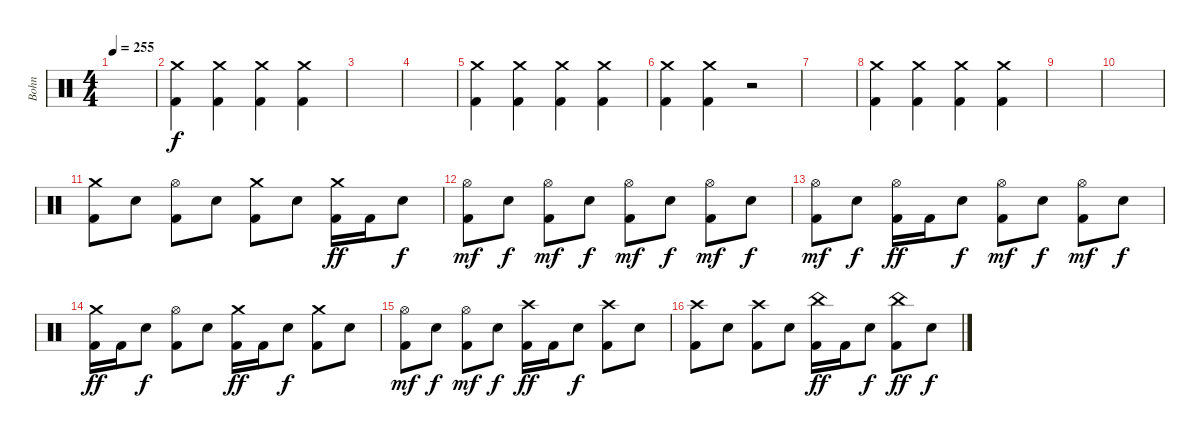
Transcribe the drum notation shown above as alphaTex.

\track ("Bohn" "Bohn") {instrument percussion}
\staff {score}
\articulation defaults
\ts (4 4)
\tempo 255
\clef neutral
\ks c
|
("Crash medium (hit)" "Kick (hit) 2").4{dy f} ("Crash medium (hit)" "Kick (hit) 2").4 ("Crash medium (hit)" "Kick (hit) 2").4 ("Crash medium (hit)" "Kick (hit) 2").4 |
|
|
("Crash medium (hit)" "Kick (hit) 2").4{volume 13} ("Crash medium (hit)" "Kick (hit) 2").4 ("Crash medium (hit)" "Kick (hit) 2").4 ("Crash medium (hit)" "Kick (hit) 2").4 |
("Crash medium (hit)" "Kick (hit) 2").4 ("Crash medium (hit)" "Kick (hit) 2").4 r.2{volume 0} |
|
("Crash medium (hit)" "Kick (hit) 2").4{volume 13} ("Crash medium (hit)" "Kick (hit) 2").4 ("Crash medium (hit)" "Kick (hit) 2").4 ("Crash medium (hit)" "Kick (hit) 2").4 |
|
|
("Crash medium (hit)" "Kick (hit) 2").8{volume 13} "Electric Snare (hit)".8 ("Hi-Hat (open)" "Kick (hit) 2").8 "Electric Snare (hit)".8 ("Crash medium (hit)" "Kick (hit) 2").8 "Electric Snare (hit)".8 ("Crash medium (hit)" "Kick (hit) 2").16{dy ff} "Kick (hit) 2".16 "Electric Snare (hit)".8{dy f} |
("Hi-Hat (open)" "Kick (hit) 2").8{dy mf} "Electric Snare (hit)".8{dy f} ("Hi-Hat (open)" "Kick (hit) 2").8{dy mf} "Electric Snare (hit)".8{dy f} ("Hi-Hat (open)" "Kick (hit) 2").8{dy mf} "Electric Snare (hit)".8{dy f} ("Hi-Hat (open)" "Kick (hit) 2").8{dy mf} "Electric Snare (hit)".8{dy f} |
("Hi-Hat (open)" "Kick (hit) 2").8{dy mf} "Electric Snare (hit)".8{dy f} ("Hi-Hat (open)" "Kick (hit) 2").16{dy ff} "Kick (hit) 2".16 "Electric Snare (hit)".8{dy f} ("Hi-Hat (open)" "Kick (hit) 2").8{dy mf} "Electric Snare (hit)".8{dy f} ("Hi-Hat (open)" "Kick (hit) 2").8{dy mf} "Electric Snare (hit)".8{dy f} |
("Crash medium (hit)" "Kick (hit) 2").16{dy ff} "Kick (hit) 2".16 "Electric Snare (hit)".8{dy f} ("Hi-Hat (open)" "Kick (hit) 2").8 "Electric Snare (hit)".8 ("Crash medium (hit)" "Kick (hit) 2").16{dy ff} "Kick (hit) 2".16 "Electric Snare (hit)".8{dy f} ("Crash medium (hit)" "Kick (hit) 2").8 "Electric Snare (hit)".8 |
("Hi-Hat (open)" "Kick (hit) 2").8{dy mf} "Electric Snare (hit)".8{dy f} ("Hi-Hat (open)" "Kick (hit) 2").8{dy mf} "Electric Snare (hit)".8{dy f} ("Crash high (hit)" "Kick (hit) 2").16{dy ff} "Kick (hit) 2".16 "Electric Snare (hit)".8{dy f} ("Crash high (hit)" "Kick (hit) 2").8 "Electric Snare (hit)".8 |
("Crash high (hit)" "Kick (hit) 2").8 "Electric Snare (hit)".8 ("Crash high (hit)" "Kick (hit) 2").8 "Electric Snare (hit)".8 ("China (hit)" "Kick (hit) 2").16{dy ff} "Kick (hit) 2".16 "Electric Snare (hit)".8{dy f} ("China (hit)" "Kick (hit) 2").8{dy ff} "Electric Snare (hit)".8{dy f}
